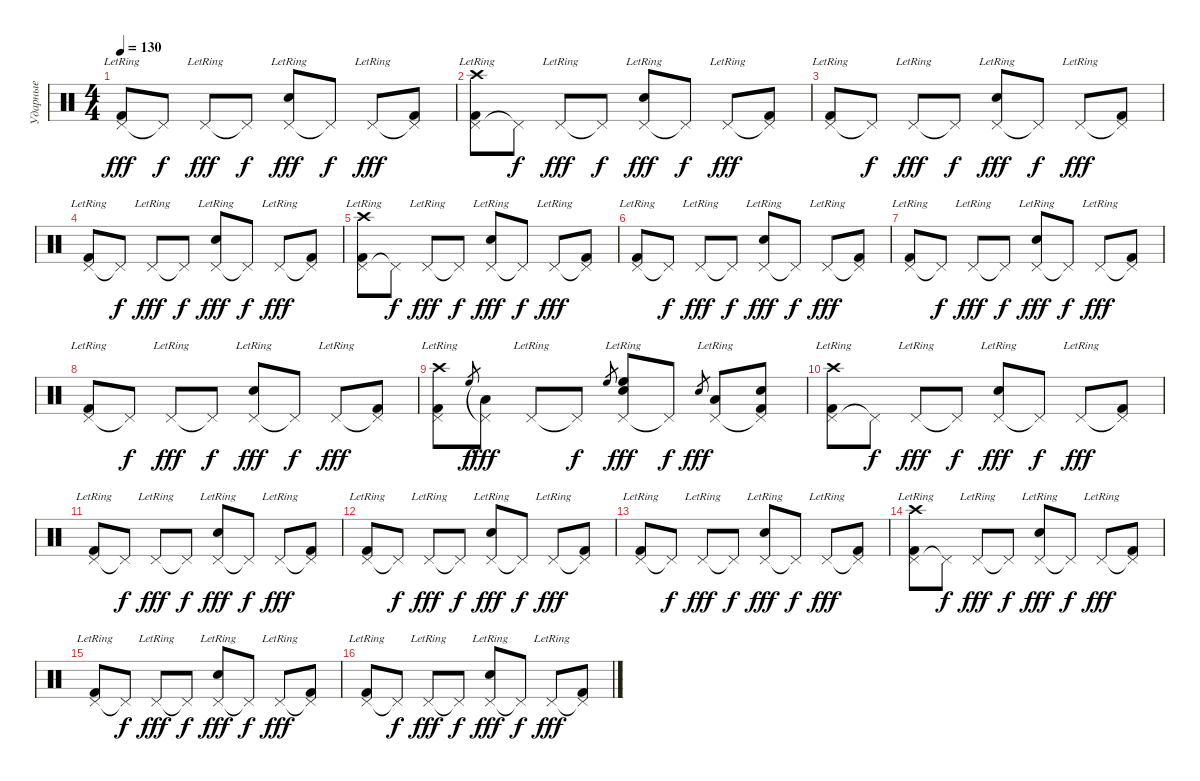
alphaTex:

\track ("Ударные" "Ударные") {instrument percussion}
\staff {score}
\articulation defaults
\ts (4 4)
\tempo 130
\clef neutral
\ks c
("Pedal Hi-Hat (hit)"{lr} "Kick (hit) 2").8{dy fff} "Pedal Hi-Hat (hit)"{t}.8{dy f} "Pedal Hi-Hat (hit)"{lr}.8{dy fff} "Pedal Hi-Hat (hit)"{t}.8{dy f} ("Pedal Hi-Hat (hit)"{lr} "Snare (hit) 2").8{dy fff} "Pedal Hi-Hat (hit)"{t}.8{dy f} "Pedal Hi-Hat (hit)"{lr}.8{dy fff} ("Pedal Hi-Hat (hit)"{t} "Kick (hit) 2").8 |
("Pedal Hi-Hat (hit)"{lr} "Kick (hit) 2" "Crash high (hit)"{lr}).8 "Pedal Hi-Hat (hit)"{t}.8{dy f} "Pedal Hi-Hat (hit)"{lr}.8{dy fff} "Pedal Hi-Hat (hit)"{t}.8{dy f} ("Pedal Hi-Hat (hit)"{lr} "Snare (hit) 2").8{dy fff} "Pedal Hi-Hat (hit)"{t}.8{dy f} "Pedal Hi-Hat (hit)"{lr}.8{dy fff} ("Pedal Hi-Hat (hit)"{t} "Kick (hit) 2").8 |
("Pedal Hi-Hat (hit)"{lr} "Kick (hit) 2").8 "Pedal Hi-Hat (hit)"{t}.8{dy f} "Pedal Hi-Hat (hit)"{lr}.8{dy fff} "Pedal Hi-Hat (hit)"{t}.8{dy f} ("Pedal Hi-Hat (hit)"{lr} "Snare (hit) 2").8{dy fff} "Pedal Hi-Hat (hit)"{t}.8{dy f} "Pedal Hi-Hat (hit)"{lr}.8{dy fff} ("Pedal Hi-Hat (hit)"{t} "Kick (hit) 2").8 |
("Pedal Hi-Hat (hit)"{lr} "Kick (hit) 2").8 "Pedal Hi-Hat (hit)"{t}.8{dy f} "Pedal Hi-Hat (hit)"{lr}.8{dy fff} "Pedal Hi-Hat (hit)"{t}.8{dy f} ("Pedal Hi-Hat (hit)"{lr} "Snare (hit) 2").8{dy fff} "Pedal Hi-Hat (hit)"{t}.8{dy f} "Pedal Hi-Hat (hit)"{lr}.8{dy fff} ("Pedal Hi-Hat (hit)"{t} "Kick (hit) 2").8 |
("Pedal Hi-Hat (hit)"{lr} "Kick (hit) 2" "Crash high (hit)"{lr}).8 "Pedal Hi-Hat (hit)"{t}.8{dy f} "Pedal Hi-Hat (hit)"{lr}.8{dy fff} "Pedal Hi-Hat (hit)"{t}.8{dy f} ("Pedal Hi-Hat (hit)"{lr} "Snare (hit) 2").8{dy fff} "Pedal Hi-Hat (hit)"{t}.8{dy f} "Pedal Hi-Hat (hit)"{lr}.8{dy fff} ("Pedal Hi-Hat (hit)"{t} "Kick (hit) 2").8 |
("Pedal Hi-Hat (hit)"{lr} "Kick (hit) 2").8 "Pedal Hi-Hat (hit)"{t}.8{dy f} "Pedal Hi-Hat (hit)"{lr}.8{dy fff} "Pedal Hi-Hat (hit)"{t}.8{dy f} ("Pedal Hi-Hat (hit)"{lr} "Snare (hit) 2").8{dy fff} "Pedal Hi-Hat (hit)"{t}.8{dy f} "Pedal Hi-Hat (hit)"{lr}.8{dy fff} ("Pedal Hi-Hat (hit)"{t} "Kick (hit) 2").8 |
("Pedal Hi-Hat (hit)"{lr} "Kick (hit) 2").8 "Pedal Hi-Hat (hit)"{t}.8{dy f} "Pedal Hi-Hat (hit)"{lr}.8{dy fff} "Pedal Hi-Hat (hit)"{t}.8{dy f} ("Pedal Hi-Hat (hit)"{lr} "Snare (hit) 2").8{dy fff} "Pedal Hi-Hat (hit)"{t}.8{dy f} "Pedal Hi-Hat (hit)"{lr}.8{dy fff} ("Pedal Hi-Hat (hit)"{t} "Kick (hit) 2").8 |
("Pedal Hi-Hat (hit)"{lr} "Kick (hit) 2").8 "Pedal Hi-Hat (hit)"{t}.8{dy f} "Pedal Hi-Hat (hit)"{lr}.8{dy fff} "Pedal Hi-Hat (hit)"{t}.8{dy f} ("Pedal Hi-Hat (hit)"{lr} "Snare (hit) 2").8{dy fff} "Pedal Hi-Hat (hit)"{t}.8{dy f} "Pedal Hi-Hat (hit)"{lr}.8{dy fff} ("Pedal Hi-Hat (hit)"{t} "Kick (hit) 2").8 |
("Pedal Hi-Hat (hit)"{lr} "Kick (hit) 2" "Crash high (hit)"{lr}).8 "High Floor Tom (hit)".8{gr dy f} ("Pedal Hi-Hat (hit)"{t} "Low Floor Tom (hit)").8{dy fff} "Pedal Hi-Hat (hit)"{lr}.8 "Pedal Hi-Hat (hit)"{t}.8{dy f} "High Floor Tom (hit)".8{gr} ("Pedal Hi-Hat (hit)"{lr} "Snare (hit) 2" "High Floor Tom (hit)").8{dy fff} "Pedal Hi-Hat (hit)"{t}.8{dy f} "Snare (hit) 2".8{gr dy fff} ("Pedal Hi-Hat (hit)"{lr} "Low Floor Tom (hit)").8 ("Pedal Hi-Hat (hit)"{t} "Kick (hit) 2" "Snare (hit) 2").8 |
("Pedal Hi-Hat (hit)"{lr} "Kick (hit) 2" "Crash high (hit)"{lr}).8 "Pedal Hi-Hat (hit)"{t}.8{dy f} "Pedal Hi-Hat (hit)"{lr}.8{dy fff} "Pedal Hi-Hat (hit)"{t}.8{dy f} ("Pedal Hi-Hat (hit)"{lr} "Snare (hit) 2").8{dy fff} "Pedal Hi-Hat (hit)"{t}.8{dy f} "Pedal Hi-Hat (hit)"{lr}.8{dy fff} ("Pedal Hi-Hat (hit)"{t} "Kick (hit) 2").8 |
("Pedal Hi-Hat (hit)"{lr} "Kick (hit) 2").8 "Pedal Hi-Hat (hit)"{t}.8{dy f} "Pedal Hi-Hat (hit)"{lr}.8{dy fff} "Pedal Hi-Hat (hit)"{t}.8{dy f} ("Pedal Hi-Hat (hit)"{lr} "Snare (hit) 2").8{dy fff} "Pedal Hi-Hat (hit)"{t}.8{dy f} "Pedal Hi-Hat (hit)"{lr}.8{dy fff} ("Pedal Hi-Hat (hit)"{t} "Kick (hit) 2").8 |
("Pedal Hi-Hat (hit)"{lr} "Kick (hit) 2").8 "Pedal Hi-Hat (hit)"{t}.8{dy f} "Pedal Hi-Hat (hit)"{lr}.8{dy fff} "Pedal Hi-Hat (hit)"{t}.8{dy f} ("Pedal Hi-Hat (hit)"{lr} "Snare (hit) 2").8{dy fff} "Pedal Hi-Hat (hit)"{t}.8{dy f} "Pedal Hi-Hat (hit)"{lr}.8{dy fff} ("Pedal Hi-Hat (hit)"{t} "Kick (hit) 2").8 |
("Pedal Hi-Hat (hit)"{lr} "Kick (hit) 2").8 "Pedal Hi-Hat (hit)"{t}.8{dy f} "Pedal Hi-Hat (hit)"{lr}.8{dy fff} "Pedal Hi-Hat (hit)"{t}.8{dy f} ("Pedal Hi-Hat (hit)"{lr} "Snare (hit) 2").8{dy fff} "Pedal Hi-Hat (hit)"{t}.8{dy f} "Pedal Hi-Hat (hit)"{lr}.8{dy fff} ("Pedal Hi-Hat (hit)"{t} "Kick (hit) 2").8 |
("Pedal Hi-Hat (hit)"{lr} "Kick (hit) 2" "Crash high (hit)"{lr}).8 "Pedal Hi-Hat (hit)"{t}.8{dy f} "Pedal Hi-Hat (hit)"{lr}.8{dy fff} "Pedal Hi-Hat (hit)"{t}.8{dy f} ("Pedal Hi-Hat (hit)"{lr} "Snare (hit) 2").8{dy fff} "Pedal Hi-Hat (hit)"{t}.8{dy f} "Pedal Hi-Hat (hit)"{lr}.8{dy fff} ("Pedal Hi-Hat (hit)"{t} "Kick (hit) 2").8 |
("Pedal Hi-Hat (hit)"{lr} "Kick (hit) 2").8 "Pedal Hi-Hat (hit)"{t}.8{dy f} "Pedal Hi-Hat (hit)"{lr}.8{dy fff} "Pedal Hi-Hat (hit)"{t}.8{dy f} ("Pedal Hi-Hat (hit)"{lr} "Snare (hit) 2").8{dy fff} "Pedal Hi-Hat (hit)"{t}.8{dy f} "Pedal Hi-Hat (hit)"{lr}.8{dy fff} ("Pedal Hi-Hat (hit)"{t} "Kick (hit) 2").8 |
("Pedal Hi-Hat (hit)"{lr} "Kick (hit) 2").8 "Pedal Hi-Hat (hit)"{t}.8{dy f} "Pedal Hi-Hat (hit)"{lr}.8{dy fff} "Pedal Hi-Hat (hit)"{t}.8{dy f} ("Pedal Hi-Hat (hit)"{lr} "Snare (hit) 2").8{dy fff} "Pedal Hi-Hat (hit)"{t}.8{dy f} "Pedal Hi-Hat (hit)"{lr}.8{dy fff} ("Pedal Hi-Hat (hit)"{t} "Kick (hit) 2").8
